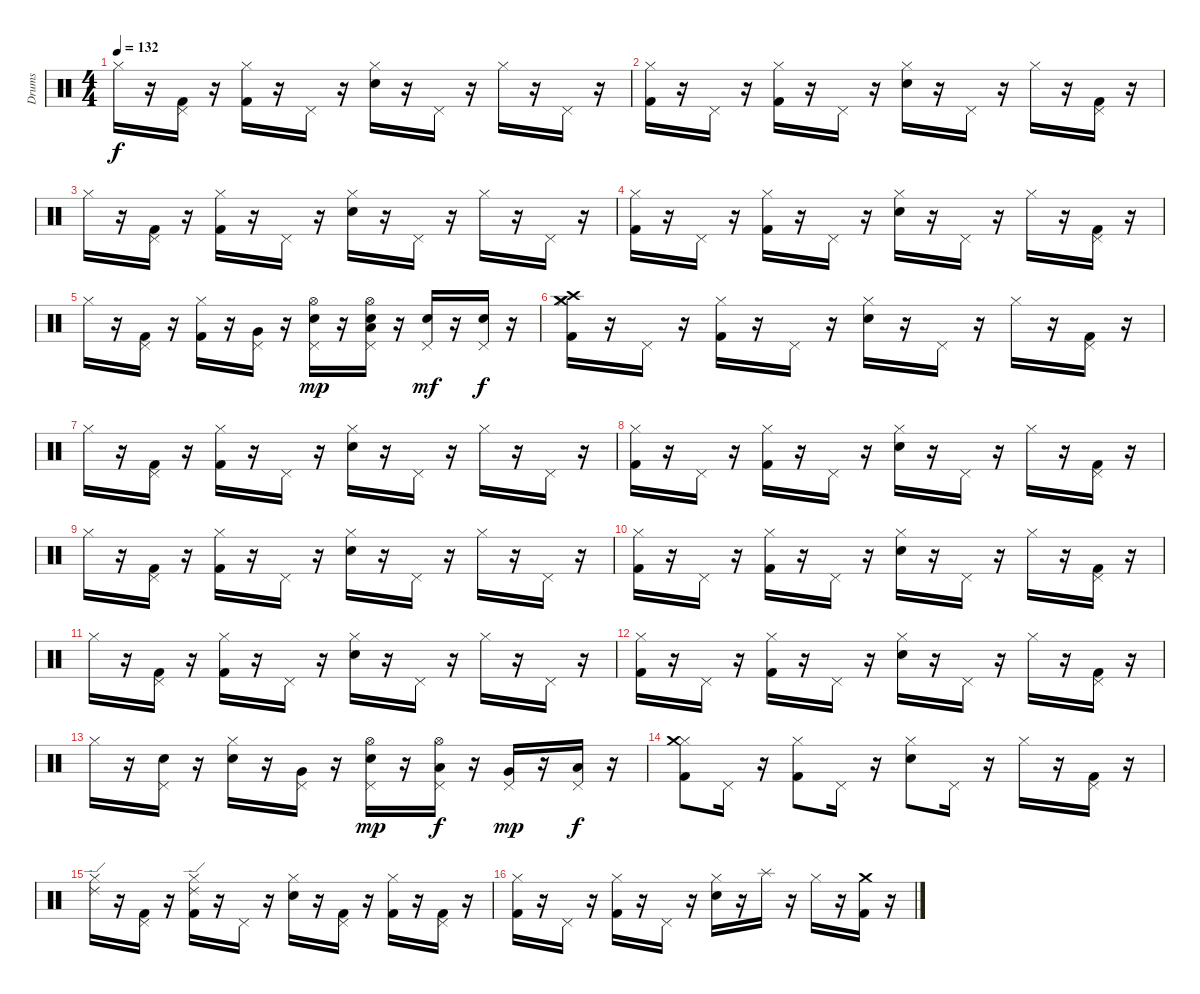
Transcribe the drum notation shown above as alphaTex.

\track ("Drums" "Drums") {instrument percussion}
\staff {score}
\articulation defaults
\ts (4 4)
\tempo 132
\clef neutral
\ks c "Hi-Hat (closed)".16{dy f}
r.16 ("Pedal Hi-Hat (hit)" "Kick (hit) 2").16 r.16 ("Hi-Hat (closed)" "Kick (hit) 2").16 r.16 "Pedal Hi-Hat (hit)".16 r.16 ("Hi-Hat (closed)" "Electric Snare (hit)").16 r.16 "Pedal Hi-Hat (hit)".16 r.16 "Hi-Hat (closed)".16 r.16 "Pedal Hi-Hat (hit)".16 r.16 |
("Hi-Hat (closed)" "Kick (hit) 2").16 r.16 "Pedal Hi-Hat (hit)".16 r.16 ("Hi-Hat (closed)" "Kick (hit) 2").16 r.16 "Pedal Hi-Hat (hit)".16 r.16 ("Hi-Hat (closed)" "Electric Snare (hit)").16 r.16 "Pedal Hi-Hat (hit)".16 r.16 "Hi-Hat (closed)".16 r.16 ("Pedal Hi-Hat (hit)" "Kick (hit) 2").16 r.16 |
"Hi-Hat (closed)".16 r.16 ("Pedal Hi-Hat (hit)" "Kick (hit) 2").16 r.16 ("Hi-Hat (closed)" "Kick (hit) 2").16 r.16 "Pedal Hi-Hat (hit)".16 r.16 ("Hi-Hat (closed)" "Electric Snare (hit)").16 r.16 "Pedal Hi-Hat (hit)".16 r.16 "Hi-Hat (closed)".16 r.16 "Pedal Hi-Hat (hit)".16 r.16 |
("Hi-Hat (closed)" "Kick (hit) 2").16 r.16 "Pedal Hi-Hat (hit)".16 r.16 ("Hi-Hat (closed)" "Kick (hit) 2").16 r.16 "Pedal Hi-Hat (hit)".16 r.16 ("Hi-Hat (closed)" "Electric Snare (hit)").16 r.16 "Pedal Hi-Hat (hit)".16 r.16 "Hi-Hat (closed)".16 r.16 ("Pedal Hi-Hat (hit)" "Kick (hit) 2").16 r.16 |
"Hi-Hat (closed)".16 r.16 ("Pedal Hi-Hat (hit)" "Kick (hit) 2").16 r.16 ("Hi-Hat (closed)" "Kick (hit) 2").16 r.16 ("Pedal Hi-Hat (hit)" "Very Low Tom (hit)").16 r.16 ("Pedal Hi-Hat (hit)" "Snare (hit) 2" "Hi-Hat (open)").16{dy mp} r.16 ("Hi-Hat (open)" "Pedal Hi-Hat (hit)" "Low Tom (hit)" "Electric Snare (hit)").16 r.16 ("Pedal Hi-Hat (hit)" "Electric Snare (hit)").16{dy mf} r.16 ("Pedal Hi-Hat (hit)" "Electric Snare (hit)").16{dy f} r.16 |
("Hi-Hat (closed)" "Kick (hit) 2" "Crash medium (hit)" "Crash high (hit)").16 r.16 "Pedal Hi-Hat (hit)".16 r.16 ("Hi-Hat (closed)" "Kick (hit) 2").16 r.16 "Pedal Hi-Hat (hit)".16 r.16 ("Hi-Hat (closed)" "Electric Snare (hit)").16 r.16 "Pedal Hi-Hat (hit)".16 r.16 "Hi-Hat (closed)".16 r.16 ("Pedal Hi-Hat (hit)" "Kick (hit) 2").16 r.16 |
"Hi-Hat (closed)".16 r.16 ("Pedal Hi-Hat (hit)" "Kick (hit) 2").16 r.16 ("Hi-Hat (closed)" "Kick (hit) 2").16 r.16 "Pedal Hi-Hat (hit)".16 r.16 ("Hi-Hat (closed)" "Electric Snare (hit)").16 r.16 "Pedal Hi-Hat (hit)".16 r.16 "Hi-Hat (closed)".16 r.16 "Pedal Hi-Hat (hit)".16 r.16 |
("Hi-Hat (closed)" "Kick (hit) 2").16 r.16 "Pedal Hi-Hat (hit)".16 r.16 ("Hi-Hat (closed)" "Kick (hit) 2").16 r.16 "Pedal Hi-Hat (hit)".16 r.16 ("Hi-Hat (closed)" "Electric Snare (hit)").16 r.16 "Pedal Hi-Hat (hit)".16 r.16 "Hi-Hat (closed)".16 r.16 ("Pedal Hi-Hat (hit)" "Kick (hit) 2").16 r.16 |
"Hi-Hat (closed)".16 r.16 ("Pedal Hi-Hat (hit)" "Kick (hit) 2").16 r.16 ("Hi-Hat (closed)" "Kick (hit) 2").16 r.16 "Pedal Hi-Hat (hit)".16 r.16 ("Hi-Hat (closed)" "Electric Snare (hit)").16 r.16 "Pedal Hi-Hat (hit)".16 r.16 "Hi-Hat (closed)".16 r.16 "Pedal Hi-Hat (hit)".16 r.16 |
("Hi-Hat (closed)" "Kick (hit) 2").16 r.16 "Pedal Hi-Hat (hit)".16 r.16 ("Hi-Hat (closed)" "Kick (hit) 2").16 r.16 "Pedal Hi-Hat (hit)".16 r.16 ("Hi-Hat (closed)" "Electric Snare (hit)").16 r.16 "Pedal Hi-Hat (hit)".16 r.16 "Hi-Hat (closed)".16 r.16 ("Pedal Hi-Hat (hit)" "Kick (hit) 2").16 r.16 |
"Hi-Hat (closed)".16 r.16 ("Pedal Hi-Hat (hit)" "Kick (hit) 2").16 r.16 ("Hi-Hat (closed)" "Kick (hit) 2").16 r.16 "Pedal Hi-Hat (hit)".16 r.16 ("Hi-Hat (closed)" "Electric Snare (hit)").16 r.16 "Pedal Hi-Hat (hit)".16 r.16 "Hi-Hat (closed)".16 r.16 "Pedal Hi-Hat (hit)".16 r.16 |
("Hi-Hat (closed)" "Kick (hit) 2").16 r.16 "Pedal Hi-Hat (hit)".16 r.16 ("Hi-Hat (closed)" "Kick (hit) 2").16 r.16 "Pedal Hi-Hat (hit)".16 r.16 ("Hi-Hat (closed)" "Electric Snare (hit)").16 r.16 "Pedal Hi-Hat (hit)".16 r.16 "Hi-Hat (closed)".16 r.16 ("Pedal Hi-Hat (hit)" "Kick (hit) 2").16 r.16 |
"Hi-Hat (closed)".16 r.16 ("Pedal Hi-Hat (hit)" "Electric Snare (hit)").16 r.16 ("Hi-Hat (closed)" "Electric Snare (hit)").16 r.16 ("Pedal Hi-Hat (hit)" "Very Low Tom (hit)").16 r.16 ("Pedal Hi-Hat (hit)" "Electric Snare (hit)" "Hi-Hat (open)").16{dy mp} r.16 ("Low Tom (hit)" "Hi-Hat (open)" "Pedal Hi-Hat (hit)").16{dy f} r.16 ("Pedal Hi-Hat (hit)" "Very Low Tom (hit)").16{dy mp} r.16 ("Pedal Hi-Hat (hit)" "Low Floor Tom (hit)").16{dy f} r.16 |
("Hi-Hat (closed)" "Kick (hit) 2" "Crash medium (hit)").8 "Pedal Hi-Hat (hit)".16 r.16 ("Hi-Hat (closed)" "Kick (hit) 2").8 "Pedal Hi-Hat (hit)".16 r.16 ("Hi-Hat (closed)" "Electric Snare (hit)").8 "Pedal Hi-Hat (hit)".16 r.16 "Hi-Hat (closed)".16 r.16 ("Pedal Hi-Hat (hit)" "Kick (hit) 2").16 r.16 |
("Ride (edge) 2" "Hi-Hat (closed)").16 r.16 ("Pedal Hi-Hat (hit)" "Kick (hit) 2").16 r.16 ("Ride (edge) 2" "Hi-Hat (closed)" "Kick (hit) 2").16 r.16 "Pedal Hi-Hat (hit)".16 r.16 ("Hi-Hat (closed)" "Electric Snare (hit)").16 r.16 ("Pedal Hi-Hat (hit)" "Kick (hit) 2").16 r.16 ("Hi-Hat (closed)" "Kick (hit) 2").16 r.16 ("Pedal Hi-Hat (hit)" "Kick (hit) 2").16 r.16 |
("Hi-Hat (closed)" "Kick (hit) 2").16 r.16 "Pedal Hi-Hat (hit)".16 r.16 ("Hi-Hat (closed)" "Kick (hit) 2").16 r.16 "Pedal Hi-Hat (hit)".16 r.16 ("Hi-Hat (closed)" "Electric Snare (hit)").16 r.16 "Splash (hit)".16 r.16 "Hi-Hat (closed)".16 r.16 ("Crash medium (hit)" "Kick (hit) 2").16 r.16
